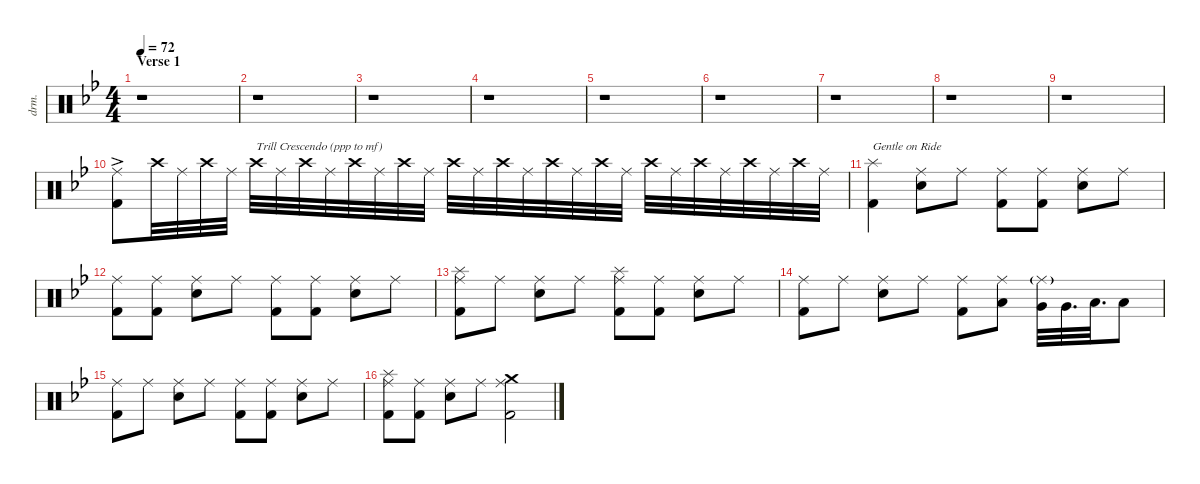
\defaultSystemsLayout 4
\hideDynamics
\bracketExtendMode nobrackets
\otherSystemsTrackNameOrientation horizontal
\track ("Drums" "drm.") {instrument percussion}
\staff {score}
\articulation defaults
\ts (4 4)
\section ("" "Verse 1")
\tempo 72
\clef neutral
\ks bb
r.1{dy mp beam Down} |
r.1{beam Down} |
r.1{beam Down} |
r.1{beam Down} |
r.1{beam Down} |
r.1{beam Down} |
r.1{beam Down} |
r.1{beam Down} |
r.1{beam Down} |
("Ride (middle)"{acc forcenatural} "Kick (hit) 2"{ac acc forcenatural}).8{dy f beam Down} "Crash high (hit)"{acc forcenatural}.32{dy ppp beam Down} "Ride (middle)"{acc forcenatural}.32{beam Down} "Crash high (hit)"{acc forcenatural}.32{beam Down} "Ride (middle)"{acc forcenatural}.32{beam Down} "Crash high (hit)"{acc forcenatural}.32{txt "Trill Crescendo (ppp to mf)" dy pp beam Down} "Ride (middle)"{acc forcenatural}.32{beam Down} "Crash high (hit)"{acc forcenatural}.32{beam Down} "Ride (middle)"{acc forcenatural}.32{beam Down} "Crash high (hit)"{acc forcenatural}.32{dy p beam Down} "Ride (middle)"{acc forcenatural}.32{beam Down} "Crash high (hit)"{acc forcenatural}.32{beam Down} "Ride (middle)"{acc forcenatural}.32{beam Down} "Crash high (hit)"{acc forcenatural}.32{beam Down} "Ride (middle)"{acc forcenatural}.32{beam Down} "Crash high (hit)"{acc forcenatural}.32{beam Down} "Ride (middle)"{acc forcenatural}.32{beam Down} "Crash high (hit)"{acc forcenatural}.32{beam Down} "Ride (middle)"{acc forcenatural}.32{dy mp beam Down} "Crash high (hit)"{acc forcenatural}.32{beam Down} "Ride (middle)"{acc forcenatural}.32{beam Down} "Crash high (hit)"{acc forcenatural}.32{beam Down} "Ride (middle)"{acc forcenatural}.32{beam Down} "Crash high (hit)"{acc forcenatural}.32{beam Down} "Ride (middle)"{acc forcenatural}.32{beam Down} "Crash high (hit)"{acc forcenatural}.32{beam Down} "Ride (middle)"{acc forcenatural}.32{beam Down} "Crash high (hit)"{acc forcenatural}.32{beam Down} "Ride (middle)"{acc forcenatural}.32{beam Down} |
("Splash (hit)"{acc forcenatural} "Kick (hit) 2"{acc forcenatural}).4{txt "Gentle on Ride" dy f beam Down} ("Ride (middle)"{acc forcenatural} "Snare (hit) 2"{acc forcenatural}).8{dy p beam Down} "Ride (middle)"{acc forcenatural}.8{beam Down} ("Ride (middle)"{acc forcenatural} "Kick (hit) 2"{acc forcenatural}).8{beam Down} ("Ride (middle)"{acc forcenatural} "Kick (hit) 2"{acc forcenatural}).8{beam Down} ("Ride (middle)"{acc forcenatural} "Snare (hit) 2"{acc forcenatural}).8{beam Down} "Ride (middle)"{acc forcenatural}.8{beam Down} |
("Ride (middle)"{acc forcenatural} "Kick (hit) 2"{acc forcenatural}).8{beam Down} ("Ride (middle)"{acc forcenatural} "Kick (hit) 2"{acc forcenatural}).8{beam Down} ("Ride (middle)"{acc forcenatural} "Snare (hit) 2"{acc forcenatural}).8{beam Down} "Ride (middle)"{acc forcenatural}.8{beam Down} ("Ride (middle)"{acc forcenatural} "Kick (hit) 2"{acc forcenatural}).8{beam Down} ("Ride (middle)"{acc forcenatural} "Kick (hit) 2"{acc forcenatural}).8{beam Down} ("Ride (middle)"{acc forcenatural} "Snare (hit) 2"{acc forcenatural}).8{beam Down} "Ride (middle)"{acc forcenatural}.8{beam Down} |
("Splash (hit)"{acc forcenatural} "Ride (middle)"{acc forcenatural} "Kick (hit) 2"{acc forcenatural}).8{dy f beam Down} "Ride (middle)"{acc forcenatural}.8{dy p beam Down} ("Ride (middle)"{acc forcenatural} "Snare (hit) 2"{acc forcenatural}).8{beam Down} "Ride (middle)"{acc forcenatural}.8{beam Down} ("Splash (hit)"{acc forcenatural} "Ride (middle)"{acc forcenatural} "Kick (hit) 2"{acc forcenatural}).8{dy f beam Down} ("Ride (middle)"{acc forcenatural} "Kick (hit) 2"{acc forcenatural}).8{dy p beam Down} ("Ride (middle)"{acc forcenatural} "Snare (hit) 2"{acc forcenatural}).8{beam Down} "Ride (middle)"{acc forcenatural}.8{beam Down} |
("Ride (middle)"{acc forcenatural} "Kick (hit) 2"{acc forcenatural}).8{beam Down} "Ride (middle)"{acc forcenatural}.8{beam Down} ("Ride (middle)"{acc forcenatural} "Snare (hit) 2"{acc forcenatural}).8{beam Down} "Ride (middle)"{acc forcenatural}.8{beam Down} ("Ride (middle)"{acc forcenatural} "Kick (hit) 2"{acc forcenatural}).8{beam Down} ("Ride (middle)"{acc forcenatural} "Low Tom (hit)"{acc forcenatural}).8{beam Down} ("Ride (middle)"{g acc forcenatural} "Very Low Tom (hit)"{acc forcenatural}).32{dy f beam Down} "Very Low Tom (hit)"{acc forcenatural}.32{d beam Down} "Low Floor Tom (hit)"{acc forcenatural}.32{d beam Down} "Low Floor Tom (hit)"{acc forcenatural}.8{beam Down} |
("Ride (middle)"{acc forcenatural} "Kick (hit) 2"{acc forcenatural}).8{dy p beam Down} "Ride (middle)"{acc forcenatural}.8{beam Down} ("Ride (middle)"{acc forcenatural} "Snare (hit) 2"{acc forcenatural}).8{beam Down} "Ride (middle)"{acc forcenatural}.8{beam Down} ("Ride (middle)"{acc forcenatural} "Kick (hit) 2"{acc forcenatural}).8{beam Down} ("Ride (middle)"{acc forcenatural} "Kick (hit) 2"{acc forcenatural}).8{beam Down} ("Ride (middle)"{acc forcenatural} "Snare (hit) 2"{acc forcenatural}).8{beam Down} "Ride (middle)"{acc forcenatural}.8{beam Down} |
("Splash (hit)"{acc forcenatural} "Ride (middle)"{acc forcenatural} "Kick (hit) 2"{acc forcenatural}).8{dy f beam Down} ("Ride (middle)"{acc forcenatural} "Kick (hit) 2"{acc forcenatural}).8{dy p beam Down} ("Ride (middle)"{acc forcenatural} "Snare (hit) 2"{acc forcenatural}).8{beam Down} "Ride (middle)"{acc forcenatural}.8{beam Down} ("Crash medium (hit)"{acc forcenatural} "Ride (middle)"{acc forcenatural} "Kick (hit) 2"{acc forcenatural}).2{dy f beam Down}
